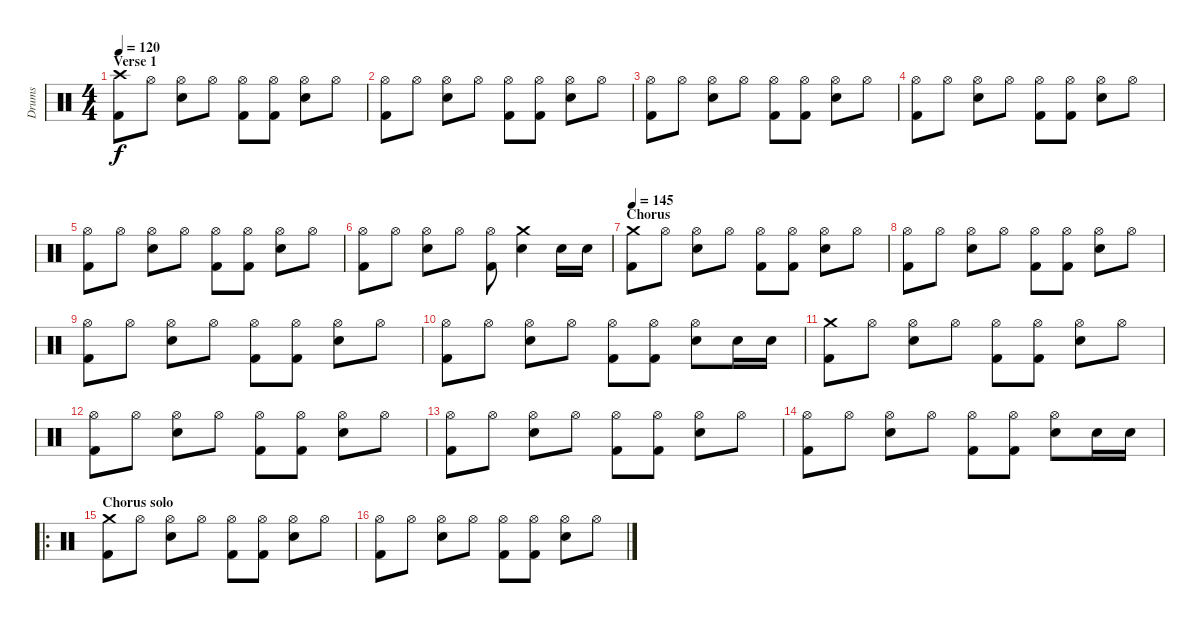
\track ("Drums" "Drums") {instrument percussion}
\staff {score}
\articulation defaults
\ts (4 4)
\section ("" "Verse 1")
\tempo 120
\clef neutral
\ks c
("Crash high (hit)" "Kick (hit) 2").8{dy f} "Hi-Hat (open)".8 ("Hi-Hat (open)" "Electric Snare (hit)").8 "Hi-Hat (open)".8 ("Hi-Hat (open)" "Kick (hit) 2").8 ("Hi-Hat (open)" "Kick (hit) 2").8 ("Hi-Hat (open)" "Electric Snare (hit)").8 "Hi-Hat (open)".8 |
("Hi-Hat (open)" "Kick (hit) 2").8 "Hi-Hat (open)".8 ("Hi-Hat (open)" "Electric Snare (hit)").8 "Hi-Hat (open)".8 ("Hi-Hat (open)" "Kick (hit) 2").8 ("Hi-Hat (open)" "Kick (hit) 2").8 ("Hi-Hat (open)" "Electric Snare (hit)").8 "Hi-Hat (open)".8 |
("Hi-Hat (open)" "Kick (hit) 2").8 "Hi-Hat (open)".8 ("Hi-Hat (open)" "Electric Snare (hit)").8 "Hi-Hat (open)".8 ("Hi-Hat (open)" "Kick (hit) 2").8 ("Hi-Hat (open)" "Kick (hit) 2").8 ("Hi-Hat (open)" "Electric Snare (hit)").8 "Hi-Hat (open)".8 |
("Hi-Hat (open)" "Kick (hit) 2").8 "Hi-Hat (open)".8 ("Hi-Hat (open)" "Electric Snare (hit)").8 "Hi-Hat (open)".8 ("Hi-Hat (open)" "Kick (hit) 2").8 ("Hi-Hat (open)" "Kick (hit) 2").8 ("Hi-Hat (open)" "Electric Snare (hit)").8 "Hi-Hat (open)".8 |
("Hi-Hat (open)" "Kick (hit) 2").8 "Hi-Hat (open)".8 ("Hi-Hat (open)" "Electric Snare (hit)").8 "Hi-Hat (open)".8 ("Hi-Hat (open)" "Kick (hit) 2").8 ("Hi-Hat (open)" "Kick (hit) 2").8 ("Hi-Hat (open)" "Electric Snare (hit)").8 "Hi-Hat (open)".8 |
("Hi-Hat (open)" "Kick (hit) 2").8 "Hi-Hat (open)".8 ("Hi-Hat (open)" "Electric Snare (hit)").8 "Hi-Hat (open)".8 ("Hi-Hat (open)" "Kick (hit) 2").8 ("Crash medium (hit)" "Electric Snare (hit)").4 "Electric Snare (hit)".16 "Electric Snare (hit)".16 |
\section ("" "Chorus")
\tempo 145
("Crash medium (hit)" "Kick (hit) 2").8 "Hi-Hat (open)".8 ("Hi-Hat (open)" "Electric Snare (hit)").8 "Hi-Hat (open)".8 ("Hi-Hat (open)" "Kick (hit) 2").8 ("Hi-Hat (open)" "Kick (hit) 2").8 ("Hi-Hat (open)" "Electric Snare (hit)").8 "Hi-Hat (open)".8 |
("Hi-Hat (open)" "Kick (hit) 2").8 "Hi-Hat (open)".8 ("Hi-Hat (open)" "Electric Snare (hit)").8 "Hi-Hat (open)".8 ("Hi-Hat (open)" "Kick (hit) 2").8 ("Hi-Hat (open)" "Kick (hit) 2").8 ("Hi-Hat (open)" "Electric Snare (hit)").8 "Hi-Hat (open)".8 |
("Hi-Hat (open)" "Kick (hit) 2").8 "Hi-Hat (open)".8 ("Hi-Hat (open)" "Electric Snare (hit)").8 "Hi-Hat (open)".8 ("Hi-Hat (open)" "Kick (hit) 2").8 ("Hi-Hat (open)" "Kick (hit) 2").8 ("Hi-Hat (open)" "Electric Snare (hit)").8 "Hi-Hat (open)".8 |
("Hi-Hat (open)" "Kick (hit) 2").8 "Hi-Hat (open)".8 ("Hi-Hat (open)" "Electric Snare (hit)").8 "Hi-Hat (open)".8 ("Hi-Hat (open)" "Kick (hit) 2").8 ("Hi-Hat (open)" "Kick (hit) 2").8 ("Hi-Hat (open)" "Electric Snare (hit)").8 "Electric Snare (hit)".16 "Electric Snare (hit)".16 |
("Crash medium (hit)" "Kick (hit) 2").8 "Hi-Hat (open)".8 ("Hi-Hat (open)" "Electric Snare (hit)").8 "Hi-Hat (open)".8 ("Hi-Hat (open)" "Kick (hit) 2").8 ("Hi-Hat (open)" "Kick (hit) 2").8 ("Hi-Hat (open)" "Electric Snare (hit)").8 "Hi-Hat (open)".8 |
("Hi-Hat (open)" "Kick (hit) 2").8 "Hi-Hat (open)".8 ("Hi-Hat (open)" "Electric Snare (hit)").8 "Hi-Hat (open)".8 ("Hi-Hat (open)" "Kick (hit) 2").8 ("Hi-Hat (open)" "Kick (hit) 2").8 ("Hi-Hat (open)" "Electric Snare (hit)").8 "Hi-Hat (open)".8 |
("Hi-Hat (open)" "Kick (hit) 2").8 "Hi-Hat (open)".8 ("Hi-Hat (open)" "Electric Snare (hit)").8 "Hi-Hat (open)".8 ("Hi-Hat (open)" "Kick (hit) 2").8 ("Hi-Hat (open)" "Kick (hit) 2").8 ("Hi-Hat (open)" "Electric Snare (hit)").8 "Hi-Hat (open)".8 |
("Hi-Hat (open)" "Kick (hit) 2").8 "Hi-Hat (open)".8 ("Hi-Hat (open)" "Electric Snare (hit)").8 "Hi-Hat (open)".8 ("Hi-Hat (open)" "Kick (hit) 2").8 ("Hi-Hat (open)" "Kick (hit) 2").8 ("Hi-Hat (open)" "Electric Snare (hit)").8 "Electric Snare (hit)".16 "Electric Snare (hit)".16 |
\ro
\section ("" "Chorus solo")
("Crash medium (hit)" "Kick (hit) 2").8 "Hi-Hat (open)".8 ("Hi-Hat (open)" "Electric Snare (hit)").8 "Hi-Hat (open)".8 ("Hi-Hat (open)" "Kick (hit) 2").8 ("Hi-Hat (open)" "Kick (hit) 2").8 ("Hi-Hat (open)" "Electric Snare (hit)").8 "Hi-Hat (open)".8 |
("Hi-Hat (open)" "Kick (hit) 2").8 "Hi-Hat (open)".8 ("Hi-Hat (open)" "Electric Snare (hit)").8 "Hi-Hat (open)".8 ("Hi-Hat (open)" "Kick (hit) 2").8 ("Hi-Hat (open)" "Kick (hit) 2").8 ("Hi-Hat (open)" "Electric Snare (hit)").8 "Hi-Hat (open)".8
